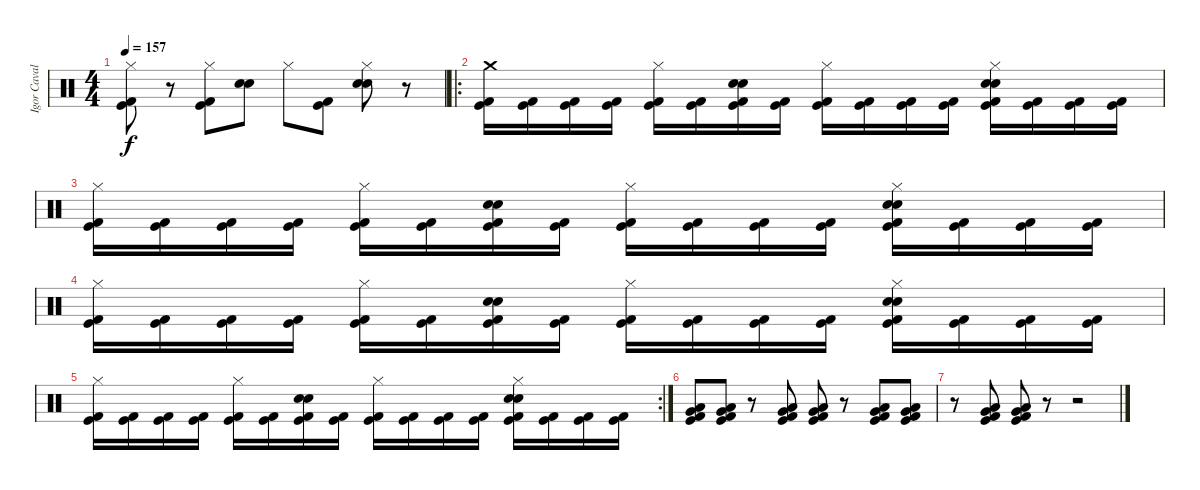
\track ("Igor Cavalera" "Igor Caval") {instrument percussion}
\staff {score}
\articulation defaults
\ts (4 4)
\tempo 157
\clef neutral
\ks c
("Hi-Hat (closed)" "Kick (hit) 2" "Kick (hit)").8{dy f} r.8 ("Hi-Hat (closed)" "Kick (hit) 2" "Kick (hit)").8 ("Electric Snare (hit)" "Snare (hit) 2").8 "Hi-Hat (closed)".8 ("Kick (hit) 2" "Kick (hit)").8 ("Hi-Hat (closed)" "Electric Snare (hit)" "Snare (hit) 2").8 r.8 |
\ro
("Crash medium (hit)" "Kick (hit) 2" "Kick (hit)").16 ("Kick (hit) 2" "Kick (hit)").16 ("Kick (hit) 2" "Kick (hit)").16 ("Kick (hit) 2" "Kick (hit)").16 ("Hi-Hat (closed)" "Kick (hit) 2" "Kick (hit)").16 ("Kick (hit) 2" "Kick (hit)").16 ("Snare (hit) 2" "Electric Snare (hit)" "Kick (hit) 2" "Kick (hit)").16 ("Kick (hit) 2" "Kick (hit)").16 ("Hi-Hat (closed)" "Kick (hit) 2" "Kick (hit)").16 ("Kick (hit) 2" "Kick (hit)").16 ("Kick (hit) 2" "Kick (hit)").16 ("Kick (hit) 2" "Kick (hit)").16 ("Hi-Hat (closed)" "Snare (hit) 2" "Electric Snare (hit)" "Kick (hit) 2" "Kick (hit)").16 ("Kick (hit) 2" "Kick (hit)").16 ("Kick (hit) 2" "Kick (hit)").16 ("Kick (hit) 2" "Kick (hit)").16 |
("Hi-Hat (closed)" "Kick (hit) 2" "Kick (hit)").16 ("Kick (hit) 2" "Kick (hit)").16 ("Kick (hit) 2" "Kick (hit)").16 ("Kick (hit) 2" "Kick (hit)").16 ("Hi-Hat (closed)" "Kick (hit) 2" "Kick (hit)").16 ("Kick (hit) 2" "Kick (hit)").16 ("Snare (hit) 2" "Electric Snare (hit)" "Kick (hit) 2" "Kick (hit)").16 ("Kick (hit) 2" "Kick (hit)").16 ("Hi-Hat (closed)" "Kick (hit) 2" "Kick (hit)").16 ("Kick (hit) 2" "Kick (hit)").16 ("Kick (hit) 2" "Kick (hit)").16 ("Kick (hit) 2" "Kick (hit)").16 ("Hi-Hat (closed)" "Snare (hit) 2" "Electric Snare (hit)" "Kick (hit) 2" "Kick (hit)").16 ("Kick (hit) 2" "Kick (hit)").16 ("Kick (hit) 2" "Kick (hit)").16 ("Kick (hit) 2" "Kick (hit)").16 |
("Hi-Hat (closed)" "Kick (hit) 2" "Kick (hit)").16 ("Kick (hit) 2" "Kick (hit)").16 ("Kick (hit) 2" "Kick (hit)").16 ("Kick (hit) 2" "Kick (hit)").16 ("Hi-Hat (closed)" "Kick (hit) 2" "Kick (hit)").16 ("Kick (hit) 2" "Kick (hit)").16 ("Snare (hit) 2" "Electric Snare (hit)" "Kick (hit) 2" "Kick (hit)").16 ("Kick (hit) 2" "Kick (hit)").16 ("Hi-Hat (closed)" "Kick (hit) 2" "Kick (hit)").16 ("Kick (hit) 2" "Kick (hit)").16 ("Kick (hit) 2" "Kick (hit)").16 ("Kick (hit) 2" "Kick (hit)").16 ("Hi-Hat (closed)" "Snare (hit) 2" "Electric Snare (hit)" "Kick (hit) 2" "Kick (hit)").16 ("Kick (hit) 2" "Kick (hit)").16 ("Kick (hit) 2" "Kick (hit)").16 ("Kick (hit) 2" "Kick (hit)").16 |
\rc 2
("Hi-Hat (closed)" "Kick (hit) 2" "Kick (hit)").16 ("Kick (hit) 2" "Kick (hit)").16 ("Kick (hit) 2" "Kick (hit)").16 ("Kick (hit) 2" "Kick (hit)").16 ("Hi-Hat (closed)" "Kick (hit) 2" "Kick (hit)").16 ("Kick (hit) 2" "Kick (hit)").16 ("Snare (hit) 2" "Electric Snare (hit)" "Kick (hit) 2" "Kick (hit)").16 ("Kick (hit) 2" "Kick (hit)").16 ("Hi-Hat (closed)" "Kick (hit) 2" "Kick (hit)").16 ("Kick (hit) 2" "Kick (hit)").16 ("Kick (hit) 2" "Kick (hit)").16 ("Kick (hit) 2" "Kick (hit)").16 ("Hi-Hat (closed)" "Snare (hit) 2" "Electric Snare (hit)" "Kick (hit) 2" "Kick (hit)").16 ("Kick (hit) 2" "Kick (hit)").16 ("Kick (hit) 2" "Kick (hit)").16 ("Kick (hit) 2" "Kick (hit)").16 |
("Low Floor Tom (hit)" "Very Low Tom (hit)" "Kick (hit) 2" "Kick (hit)").8 ("Low Floor Tom (hit)" "Very Low Tom (hit)" "Kick (hit) 2" "Kick (hit)").8 r.8 ("Low Floor Tom (hit)" "Very Low Tom (hit)" "Kick (hit) 2" "Kick (hit)").8 ("Low Floor Tom (hit)" "Very Low Tom (hit)" "Kick (hit) 2" "Kick (hit)").8 r.8 ("Low Floor Tom (hit)" "Very Low Tom (hit)" "Kick (hit) 2" "Kick (hit)").8 ("Low Floor Tom (hit)" "Very Low Tom (hit)" "Kick (hit) 2" "Kick (hit)").8 |
r.8 ("Low Floor Tom (hit)" "Very Low Tom (hit)" "Kick (hit) 2" "Kick (hit)").8 ("Low Floor Tom (hit)" "Very Low Tom (hit)" "Kick (hit) 2" "Kick (hit)").8 r.8 r.2
